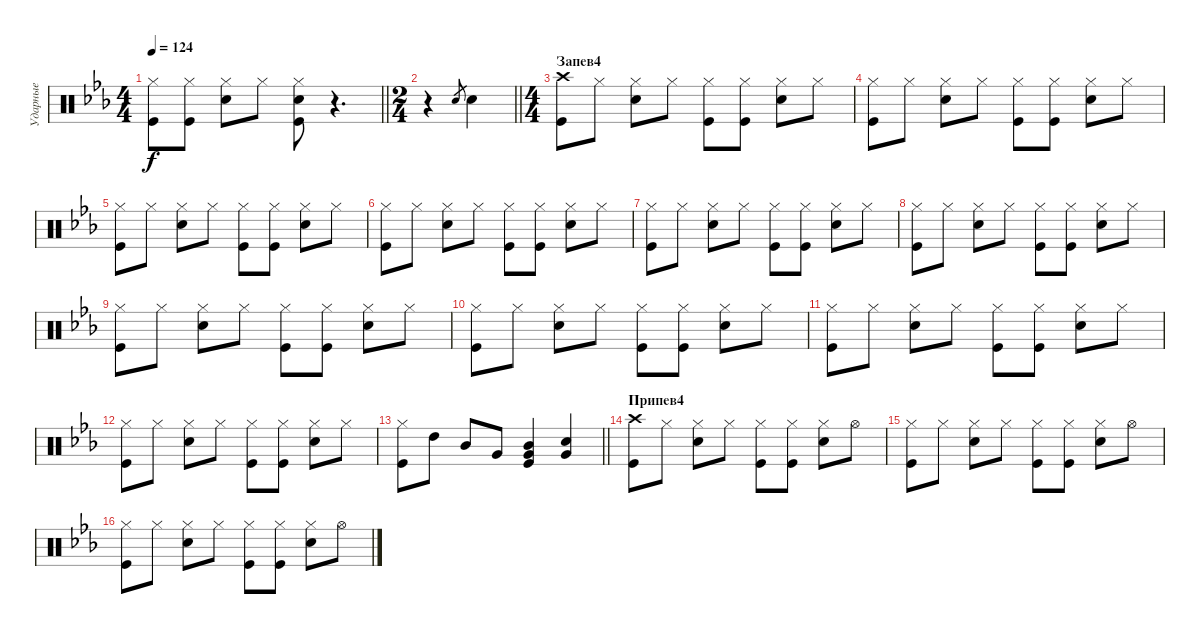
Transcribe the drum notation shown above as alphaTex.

\track ("Ударные" "Ударные") {instrument percussion}
\staff {score}
\articulation defaults
\ts (4 4)
\tempo 124
\clef neutral
\barLineRight lightlight
\ks cminor
("Hi-Hat (closed)" "Kick (hit)").8{dy f} ("Hi-Hat (closed)" "Kick (hit)").8 ("Snare (hit) 2" "Hi-Hat (closed)").8 "Hi-Hat (closed)".8 ("Kick (hit)" "Hi-Hat (closed)" "Snare (hit) 2").8 r.4{d} |
\ts (2 4)
\barLineRight lightlight
r.4 "Snare (hit) 2".8{gr} "Snare (hit) 2".4 |
\ts (4 4)
\section ("" "Запев4")
("Crash high (hit)" "Kick (hit)").8 "Hi-Hat (closed)".8 ("Hi-Hat (closed)" "Snare (hit) 2").8 "Hi-Hat (closed)".8 ("Hi-Hat (closed)" "Kick (hit)").8 ("Kick (hit)" "Hi-Hat (closed)").8 ("Hi-Hat (closed)" "Snare (hit) 2").8 "Hi-Hat (closed)".8 |
("Hi-Hat (closed)" "Kick (hit)").8 "Hi-Hat (closed)".8 ("Hi-Hat (closed)" "Snare (hit) 2").8 "Hi-Hat (closed)".8 ("Hi-Hat (closed)" "Kick (hit)").8 ("Hi-Hat (closed)" "Kick (hit)").8 ("Hi-Hat (closed)" "Snare (hit) 2").8 "Hi-Hat (closed)".8 |
("Hi-Hat (closed)" "Kick (hit)").8 "Hi-Hat (closed)".8 ("Hi-Hat (closed)" "Snare (hit) 2").8 "Hi-Hat (closed)".8 ("Hi-Hat (closed)" "Kick (hit)").8 ("Hi-Hat (closed)" "Kick (hit)").8 ("Hi-Hat (closed)" "Snare (hit) 2").8 "Hi-Hat (closed)".8 |
("Hi-Hat (closed)" "Kick (hit)").8 "Hi-Hat (closed)".8 ("Hi-Hat (closed)" "Snare (hit) 2").8 "Hi-Hat (closed)".8 ("Hi-Hat (closed)" "Kick (hit)").8 ("Hi-Hat (closed)" "Kick (hit)").8 ("Hi-Hat (closed)" "Snare (hit) 2").8 "Hi-Hat (closed)".8 |
("Hi-Hat (closed)" "Kick (hit)").8 "Hi-Hat (closed)".8 ("Hi-Hat (closed)" "Snare (hit) 2").8 "Hi-Hat (closed)".8 ("Hi-Hat (closed)" "Kick (hit)").8 ("Hi-Hat (closed)" "Kick (hit)").8 ("Hi-Hat (closed)" "Snare (hit) 2").8 "Hi-Hat (closed)".8 |
("Hi-Hat (closed)" "Kick (hit)").8 "Hi-Hat (closed)".8 ("Hi-Hat (closed)" "Snare (hit) 2").8 "Hi-Hat (closed)".8 ("Hi-Hat (closed)" "Kick (hit)").8 ("Hi-Hat (closed)" "Kick (hit)").8 ("Hi-Hat (closed)" "Snare (hit) 2").8 "Hi-Hat (closed)".8 |
("Hi-Hat (closed)" "Kick (hit)").8 "Hi-Hat (closed)".8 ("Hi-Hat (closed)" "Snare (hit) 2").8 "Hi-Hat (closed)".8 ("Hi-Hat (closed)" "Kick (hit)").8 ("Hi-Hat (closed)" "Kick (hit)").8 ("Hi-Hat (closed)" "Snare (hit) 2").8 "Hi-Hat (closed)".8 |
("Hi-Hat (closed)" "Kick (hit)").8 "Hi-Hat (closed)".8 ("Hi-Hat (closed)" "Snare (hit) 2").8 "Hi-Hat (closed)".8 ("Hi-Hat (closed)" "Kick (hit)").8 ("Hi-Hat (closed)" "Kick (hit)").8 ("Hi-Hat (closed)" "Snare (hit) 2").8 "Hi-Hat (closed)".8 |
("Hi-Hat (closed)" "Kick (hit)").8 "Hi-Hat (closed)".8 ("Hi-Hat (closed)" "Snare (hit) 2").8 "Hi-Hat (closed)".8 ("Hi-Hat (closed)" "Kick (hit)").8 ("Hi-Hat (closed)" "Kick (hit)").8 ("Hi-Hat (closed)" "Snare (hit) 2").8 "Hi-Hat (closed)".8 |
("Hi-Hat (closed)" "Kick (hit)").8 "Hi-Hat (closed)".8 ("Hi-Hat (closed)" "Snare (hit) 2").8 "Hi-Hat (closed)".8 ("Hi-Hat (closed)" "Kick (hit)").8 ("Hi-Hat (closed)" "Kick (hit)").8 ("Hi-Hat (closed)" "Snare (hit) 2").8 "Hi-Hat (closed)".8 |
\barLineRight lightlight
("Kick (hit)" "Hi-Hat (closed)").8 "High Tom (hit)".8 "Mid Tom (hit)".8 "Very Low Tom (hit)".8 ("Kick (hit)" "Very Low Tom (hit)" "Mid Tom (hit)").4 ("Snare (hit) 2" "Very Low Tom (hit)").4 |
\section ("" "Припев4")
("Crash high (hit)" "Kick (hit)").8 "Hi-Hat (closed)".8 ("Hi-Hat (closed)" "Snare (hit) 2").8 "Hi-Hat (closed)".8 ("Hi-Hat (closed)" "Kick (hit)").8 ("Hi-Hat (closed)" "Kick (hit)").8 ("Hi-Hat (closed)" "Snare (hit) 2").8 "Hi-Hat (open)".8 |
("Hi-Hat (closed)" "Kick (hit)").8 "Hi-Hat (closed)".8 ("Snare (hit) 2" "Hi-Hat (closed)").8 "Hi-Hat (closed)".8 ("Hi-Hat (closed)" "Kick (hit)").8 ("Hi-Hat (closed)" "Kick (hit)").8 ("Hi-Hat (closed)" "Snare (hit) 2").8 "Hi-Hat (open)".8 |
("Hi-Hat (closed)" "Kick (hit)").8 "Hi-Hat (closed)".8 ("Snare (hit) 2" "Hi-Hat (closed)").8 "Hi-Hat (closed)".8 ("Hi-Hat (closed)" "Kick (hit)").8 ("Hi-Hat (closed)" "Kick (hit)").8 ("Hi-Hat (closed)" "Snare (hit) 2").8 "Hi-Hat (open)".8
